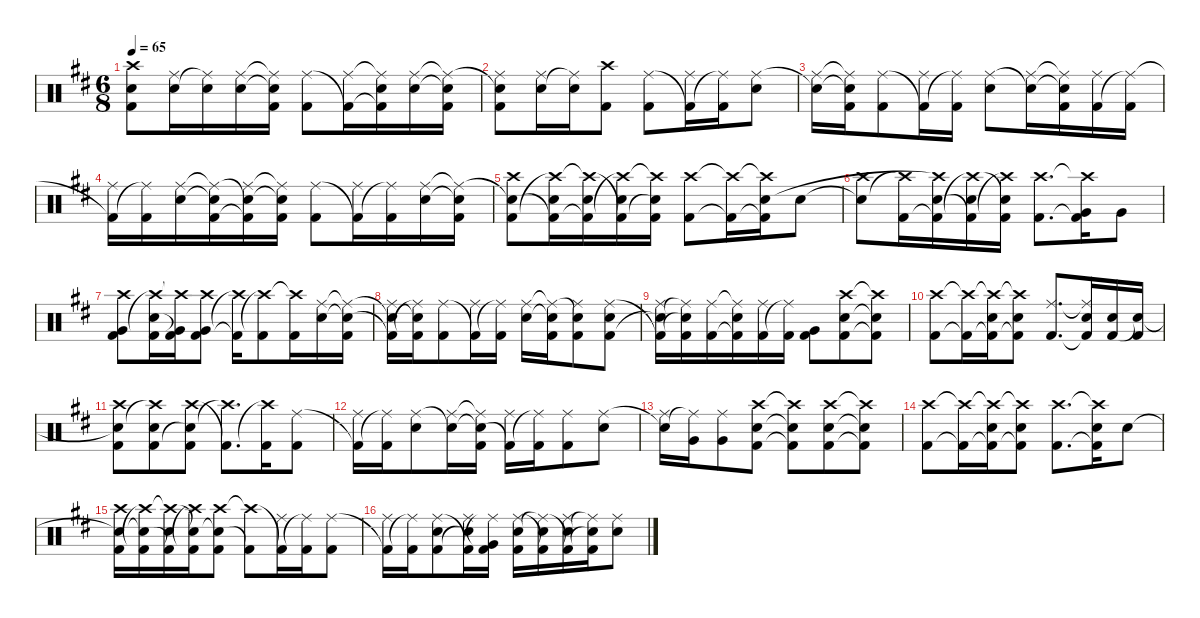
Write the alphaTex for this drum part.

\hideDynamics
\bracketExtendMode nobrackets
\singleTrackTrackNamePolicy hidden
\multiTrackTrackNamePolicy hidden
\firstSystemTrackNameMode fullname
\firstSystemTrackNameOrientation horizontal
\otherSystemsTrackNameOrientation horizontal
\track ("Drums" "drm.") {instrument percussion}
\staff {score}
\articulation defaults
\ts (6 8)
\tempo 65
\clef neutral
\ks bminor
("Kick (hit) 2"{acc forcenatural} "Snare (hit) 2"{t acc forcenatural} "Crash high (hit)"{acc #}).8{dy ff beam Down} ("Snare (hit) 2"{acc forcenatural} "Ride (middle)"{acc #}).16{beam Down} ("Ride (middle)"{t acc #} "Snare (hit) 2"{acc forcenatural}).16{beam Down} ("Snare (hit) 2"{acc forcenatural} "Ride (middle)"{acc #}).16{beam Down} ("Snare (hit) 2"{t acc forcenatural} "Ride (middle)"{t acc #} "Kick (hit) 2"{acc forcenatural}).16{beam Down} ("Ride (middle)"{acc #} "Kick (hit) 2"{acc forcenatural}).8{beam Down} ("Kick (hit) 2"{t acc forcenatural} "Ride (middle)"{acc #}).16{beam Down} ("Kick (hit) 2"{t acc forcenatural} "Ride (middle)"{t acc #} "Snare (hit) 2"{acc forcenatural}).16{beam Down} ("Ride (middle)"{acc #} "Snare (hit) 2"{acc forcenatural}).16{beam Down} ("Ride (middle)"{t acc #} "Snare (hit) 2"{t acc forcenatural} "Kick (hit) 2"{acc forcenatural}).16{beam Down} |
("Snare (hit) 2"{t acc forcenatural} "Kick (hit) 2"{acc forcenatural} "Ride (middle)"{acc #}).8{beam Down} ("Snare (hit) 2"{acc forcenatural} "Ride (middle)"{acc #}).16{beam Down} ("Ride (middle)"{t acc #} "Snare (hit) 2"{acc forcenatural}).16{beam Down} ("Kick (hit) 2"{acc forcenatural} "Crash high (hit)"{acc #}).8{beam Down} ("Ride (middle)"{acc #} "Kick (hit) 2"{acc forcenatural}).8{beam Down} ("Kick (hit) 2"{t acc forcenatural} "Ride (middle)"{acc #}).16{beam Down} ("Ride (middle)"{t acc #} "Kick (hit) 2"{acc forcenatural}).16{beam Down} ("Ride (middle)"{acc #} "Snare (hit) 2"{acc forcenatural}).8{beam Down} |
("Snare (hit) 2"{t acc forcenatural} "Ride (middle)"{acc #}).16{beam Down} ("Snare (hit) 2"{t acc forcenatural} "Ride (middle)"{t acc #} "Kick (hit) 2"{acc forcenatural}).16{beam Down} ("Ride (middle)"{acc #} "Kick (hit) 2"{acc forcenatural}).8{beam Down} ("Kick (hit) 2"{t acc forcenatural} "Ride (middle)"{acc #}).16{beam Down} ("Ride (middle)"{t acc #} "Kick (hit) 2"{acc forcenatural}).16{beam Down} ("Ride (middle)"{acc #} "Snare (hit) 2"{acc forcenatural}).8{beam Down} ("Snare (hit) 2"{t acc forcenatural} "Ride (middle)"{acc #}).16{beam Down} ("Snare (hit) 2"{t acc forcenatural} "Ride (middle)"{t acc #} "Kick (hit) 2"{acc forcenatural}).16{beam Down} ("Kick (hit) 2"{acc forcenatural} "Ride (middle)"{acc #}).16{beam Down} ("Ride (middle)"{t acc #} "Kick (hit) 2"{acc forcenatural}).16{beam Down} |
("Kick (hit) 2"{t acc forcenatural} "Ride (middle)"{acc #}).16{beam Down} ("Ride (middle)"{t acc #} "Kick (hit) 2"{acc forcenatural}).16{beam Down} ("Ride (middle)"{acc #} "Snare (hit) 2"{acc forcenatural}).16{beam Down} ("Ride (middle)"{t acc #} "Snare (hit) 2"{t acc forcenatural} "Kick (hit) 2"{acc forcenatural}).16{beam Down} ("Snare (hit) 2"{t acc forcenatural} "Ride (middle)"{acc #} "Kick (hit) 2"{t acc forcenatural}).16{beam Down} ("Snare (hit) 2"{t acc forcenatural} "Ride (middle)"{t acc #} "Kick (hit) 2"{acc forcenatural}).16{beam Down} ("Ride (middle)"{acc #} "Kick (hit) 2"{acc forcenatural}).8{beam Down} ("Kick (hit) 2"{t acc forcenatural} "Ride (middle)"{acc #}).16{beam Down} ("Ride (middle)"{t acc #} "Kick (hit) 2"{acc forcenatural}).16{beam Down} ("Ride (middle)"{acc #} "Snare (hit) 2"{acc forcenatural}).16{beam Down} ("Ride (middle)"{t acc #} "Snare (hit) 2"{t acc forcenatural} "Kick (hit) 2"{acc forcenatural}).16{beam Down} |
("Snare (hit) 2"{t acc forcenatural} "Kick (hit) 2"{acc forcenatural} "Crash high (hit)"{acc #}).8{beam Down} ("Kick (hit) 2"{t acc forcenatural} "Crash high (hit)"{t acc #} "Snare (hit) 2"{acc forcenatural}).16{beam Down} ("Kick (hit) 2"{t acc forcenatural} "Crash high (hit)"{t acc #} "Snare (hit) 2"{acc forcenatural}).16{beam Down} ("Crash high (hit)"{t acc #} "Kick (hit) 2"{t acc forcenatural} "Snare (hit) 2"{acc forcenatural}).16{beam Down} ("Crash high (hit)"{t acc #} "Snare (hit) 2"{t acc forcenatural} "Kick (hit) 2"{acc forcenatural}).16{beam Down} ("Kick (hit) 2"{acc forcenatural} "Crash high (hit)"{acc #}).8{beam Down} ("Kick (hit) 2"{t acc forcenatural} "Crash high (hit)"{t acc #}).16{beam Down} ("Kick (hit) 2"{t acc forcenatural} "Crash high (hit)"{t acc #} "Snare (hit) 2"{acc forcenatural}).16{beam Down} "Snare (hit) 2"{acc forcenatural}.8{beam Down} |
("Snare (hit) 2"{t acc forcenatural} "Crash high (hit)"{acc #}).8{beam Down} ("Crash high (hit)"{t acc #} "Kick (hit) 2"{acc forcenatural}).16{beam Down} ("Snare (hit) 2"{acc forcenatural} "Kick (hit) 2"{t acc forcenatural} "Crash high (hit)"{t acc #}).16{beam Down} ("Kick (hit) 2"{t acc forcenatural} "Crash high (hit)"{t acc #} "Snare (hit) 2"{acc forcenatural}).16{beam Down} ("Crash high (hit)"{t acc #} "Snare (hit) 2"{t acc forcenatural} "Kick (hit) 2"{acc forcenatural}).16{beam Down} ("Kick (hit) 2"{acc forcenatural} "Crash high (hit)"{acc #}).8{d beam Down} ("Kick (hit) 2"{t acc forcenatural} "Crash high (hit)"{t acc #} "Very Low Tom (hit)"{acc forcenatural}).16{beam Down} "Very Low Tom (hit)"{acc forcenatural}.8{beam Down} |
("Kick (hit) 2"{acc forcenatural} "Very Low Tom (hit)"{acc forcenatural} "Crash high (hit)"{acc #}).8{beam Down} ("Crash high (hit)"{t acc #} "Snare (hit) 2"{acc forcenatural} "Kick (hit) 2"{acc forcenatural}).16{beam Down} ("Crash high (hit)"{t acc #} "Kick (hit) 2"{t acc forcenatural} "Very Low Tom (hit)"{acc forcenatural}).16{beam Down} ("Kick (hit) 2"{acc forcenatural} "Very Low Tom (hit)"{acc forcenatural} "Crash high (hit)"{acc #}).8{beam Down} ("Kick (hit) 2"{t acc forcenatural} "Crash high (hit)"{t acc #}).16{beam Down} ("Crash high (hit)"{t acc #} "Kick (hit) 2"{acc forcenatural}).8{beam Down} ("Crash high (hit)"{t acc #} "Kick (hit) 2"{acc forcenatural}).16{beam Down} ("Ride (middle)"{acc #} "Snare (hit) 2"{acc forcenatural}).16{beam Down} ("Ride (middle)"{t acc #} "Snare (hit) 2"{t acc forcenatural} "Kick (hit) 2"{acc forcenatural}).16{beam Down} |
("Snare (hit) 2"{t acc forcenatural} "Kick (hit) 2"{t acc forcenatural} "Ride (middle)"{acc #}).16{beam Down} ("Snare (hit) 2"{t acc forcenatural} "Ride (middle)"{t acc #} "Kick (hit) 2"{acc forcenatural}).16{beam Down} ("Ride (middle)"{acc #} "Kick (hit) 2"{acc forcenatural}).8{beam Down} ("Kick (hit) 2"{t acc forcenatural} "Ride (middle)"{acc #}).16{beam Down} ("Ride (middle)"{t acc #} "Kick (hit) 2"{acc forcenatural}).16{beam Down} ("Ride (middle)"{acc #} "Snare (hit) 2"{acc forcenatural}).16{beam Down} ("Ride (middle)"{t acc #} "Snare (hit) 2"{t acc forcenatural} "Kick (hit) 2"{acc forcenatural}).16{beam Down} ("Snare (hit) 2"{t acc forcenatural} "Kick (hit) 2"{acc forcenatural} "Ride (middle)"{acc #}).8{beam Down} ("Ride (middle)"{acc #} "Kick (hit) 2"{acc forcenatural} "Snare (hit) 2"{acc forcenatural}).8{beam Down} |
("Kick (hit) 2"{t acc forcenatural} "Snare (hit) 2"{t acc forcenatural} "Ride (middle)"{acc #}).16{beam Down} ("Snare (hit) 2"{t acc forcenatural} "Ride (middle)"{t acc #} "Kick (hit) 2"{acc forcenatural}).16{beam Down} ("Kick (hit) 2"{acc forcenatural} "Ride (middle)"{acc #}).16{beam Down} ("Kick (hit) 2"{t acc forcenatural} "Ride (middle)"{t acc #} "Snare (hit) 2"{acc forcenatural}).16{beam Down} ("Kick (hit) 2"{acc forcenatural} "Ride (middle)"{acc #}).16{beam Down} ("Ride (middle)"{t acc #} "Kick (hit) 2"{acc forcenatural}).16{beam Down} ("Kick (hit) 2"{acc forcenatural} "Very Low Tom (hit)"{acc forcenatural}).8{beam Down} ("Snare (hit) 2"{acc forcenatural} "Kick (hit) 2"{acc forcenatural} "Crash high (hit)"{acc #}).8{beam Down} ("Snare (hit) 2"{t acc forcenatural} "Kick (hit) 2"{t acc forcenatural} "Crash high (hit)"{t acc #}).8{beam Down} |
("Kick (hit) 2"{acc forcenatural} "Crash high (hit)"{acc #}).8{beam Down} ("Kick (hit) 2"{t acc forcenatural} "Crash high (hit)"{t acc #}).16{beam Down} ("Kick (hit) 2"{t acc forcenatural} "Crash high (hit)"{t acc #} "Snare (hit) 2"{acc forcenatural}).16{beam Down} ("Kick (hit) 2"{t acc forcenatural} "Crash high (hit)"{t acc #} "Snare (hit) 2"{acc forcenatural}).8{beam Down} ("Kick (hit) 2"{acc forcenatural} "Ride (middle)"{acc #}).8{d beam Up} ("Kick (hit) 2"{t acc forcenatural} "Ride (middle)"{t acc #} "Snare (hit) 2"{acc forcenatural}).16{beam Up} ("Kick (hit) 2"{acc forcenatural} "Snare (hit) 2"{acc forcenatural}).16{beam Up} ("Snare (hit) 2"{t acc forcenatural} "Kick (hit) 2"{acc forcenatural}).16{beam Up} |
("Snare (hit) 2"{t acc forcenatural} "Kick (hit) 2"{acc forcenatural} "Crash high (hit)"{acc #}).8{beam Down} ("Crash high (hit)"{t acc #} "Kick (hit) 2"{acc forcenatural} "Snare (hit) 2"{acc forcenatural}).8{beam Down} ("Crash high (hit)"{acc #} "Snare (hit) 2"{t acc forcenatural} "Kick (hit) 2"{acc forcenatural}).8{beam Down} ("Kick (hit) 2"{t acc forcenatural} "Crash high (hit)"{t acc #}).8{d beam Down} ("Crash high (hit)"{t acc #} "Kick (hit) 2"{acc forcenatural}).16{beam Down} ("Ride (middle)"{acc #} "Kick (hit) 2"{acc forcenatural}).8{beam Down} |
("Kick (hit) 2"{t acc forcenatural} "Ride (middle)"{acc #}).16{beam Down} ("Ride (middle)"{t acc #} "Kick (hit) 2"{acc forcenatural}).16{beam Down} ("Ride (middle)"{acc #} "Snare (hit) 2"{acc forcenatural}).8{beam Down} ("Snare (hit) 2"{t acc forcenatural} "Ride (middle)"{acc #}).16{beam Down} ("Snare (hit) 2"{t acc forcenatural} "Ride (middle)"{t acc #} "Kick (hit) 2"{acc forcenatural}).16{beam Down} ("Kick (hit) 2"{t acc forcenatural} "Ride (middle)"{acc #}).16{beam Down} ("Ride (middle)"{t acc #} "Kick (hit) 2"{acc forcenatural}).16{beam Down} ("Kick (hit) 2"{acc forcenatural} "Ride (middle)"{acc #}).8{beam Down} ("Ride (middle)"{acc #} "Snare (hit) 2"{acc forcenatural}).8{beam Down} |
("Snare (hit) 2"{t acc forcenatural} "Ride (middle)"{acc #}).16{beam Down} ("Ride (middle)"{t acc #} "Very Low Tom (hit)"{acc forcenatural}).16{beam Down} ("Very Low Tom (hit)"{acc forcenatural} "Ride (middle)"{acc #}).8{beam Down} ("Kick (hit) 2"{acc forcenatural} "Snare (hit) 2"{acc forcenatural} "Crash high (hit)"{acc #}).8{beam Down} ("Kick (hit) 2"{t acc forcenatural} "Snare (hit) 2"{t acc forcenatural} "Crash high (hit)"{t acc #}).8{beam Down} ("Snare (hit) 2"{acc forcenatural} "Kick (hit) 2"{acc forcenatural} "Crash high (hit)"{acc #}).8{beam Down} ("Snare (hit) 2"{t acc forcenatural} "Kick (hit) 2"{t acc forcenatural} "Crash high (hit)"{t acc #}).8{beam Down} |
("Kick (hit) 2"{acc forcenatural} "Crash high (hit)"{acc #}).8{beam Down} ("Kick (hit) 2"{t acc forcenatural} "Crash high (hit)"{t acc #}).16{beam Down} ("Kick (hit) 2"{t acc forcenatural} "Crash high (hit)"{t acc #} "Snare (hit) 2"{acc forcenatural}).16{beam Down} ("Kick (hit) 2"{t acc forcenatural} "Crash high (hit)"{t acc #} "Snare (hit) 2"{acc forcenatural}).8{beam Down} ("Kick (hit) 2"{acc forcenatural} "Crash high (hit)"{acc #}).8{d beam Down} ("Kick (hit) 2"{t acc forcenatural} "Crash high (hit)"{t acc #} "Snare (hit) 2"{acc forcenatural}).16{beam Down} "Snare (hit) 2"{acc forcenatural}.8{beam Down} |
("Snare (hit) 2"{t acc forcenatural} "Kick (hit) 2"{acc forcenatural} "Crash high (hit)"{acc #}).16{beam Down} ("Snare (hit) 2"{t acc forcenatural} "Crash high (hit)"{t acc #} "Kick (hit) 2"{acc forcenatural}).16{beam Down} ("Kick (hit) 2"{t acc forcenatural} "Crash high (hit)"{t acc #} "Snare (hit) 2"{acc forcenatural}).16{beam Down} ("Crash high (hit)"{t acc #} "Snare (hit) 2"{t acc forcenatural} "Kick (hit) 2"{acc forcenatural}).16{beam Down} ("Crash high (hit)"{acc #} "Snare (hit) 2"{t acc forcenatural} "Kick (hit) 2"{acc forcenatural}).8{beam Down} ("Crash high (hit)"{t acc #} "Kick (hit) 2"{t acc forcenatural}).8{beam Down} ("Kick (hit) 2"{t acc forcenatural} "Ride (middle)"{acc #}).16{beam Down} ("Ride (middle)"{t acc #} "Kick (hit) 2"{acc forcenatural}).16{beam Down} ("Ride (middle)"{acc #} "Kick (hit) 2"{acc forcenatural}).8{beam Down} |
("Kick (hit) 2"{t acc forcenatural} "Ride (middle)"{acc #}).16{beam Down} ("Ride (middle)"{t acc #} "Kick (hit) 2"{acc forcenatural}).16{beam Down} ("Ride (middle)"{acc #} "Kick (hit) 2"{acc forcenatural} "Snare (hit) 2"{acc forcenatural}).8{beam Down} ("Kick (hit) 2"{t acc forcenatural} "Snare (hit) 2"{t acc forcenatural} "Ride (middle)"{acc #}).16{beam Down} ("Ride (middle)"{t acc #} "Kick (hit) 2"{acc forcenatural} "Very Low Tom (hit)"{acc forcenatural}).16{beam Down} ("Snare (hit) 2"{acc forcenatural} "Ride (middle)"{acc #} "Kick (hit) 2"{acc forcenatural}).16{beam Down} ("Ride (middle)"{t acc #} "Kick (hit) 2"{t acc forcenatural} "Snare (hit) 2"{acc forcenatural}).16{beam Down} ("Kick (hit) 2"{t acc forcenatural} "Snare (hit) 2"{acc forcenatural} "Ride (middle)"{acc #}).16{beam Down} ("Snare (hit) 2"{t acc forcenatural} "Ride (middle)"{t acc #} "Kick (hit) 2"{acc forcenatural}).16{beam Down} ("Snare (hit) 2"{acc forcenatural} "Ride (middle)"{acc #}).8{beam Down}
